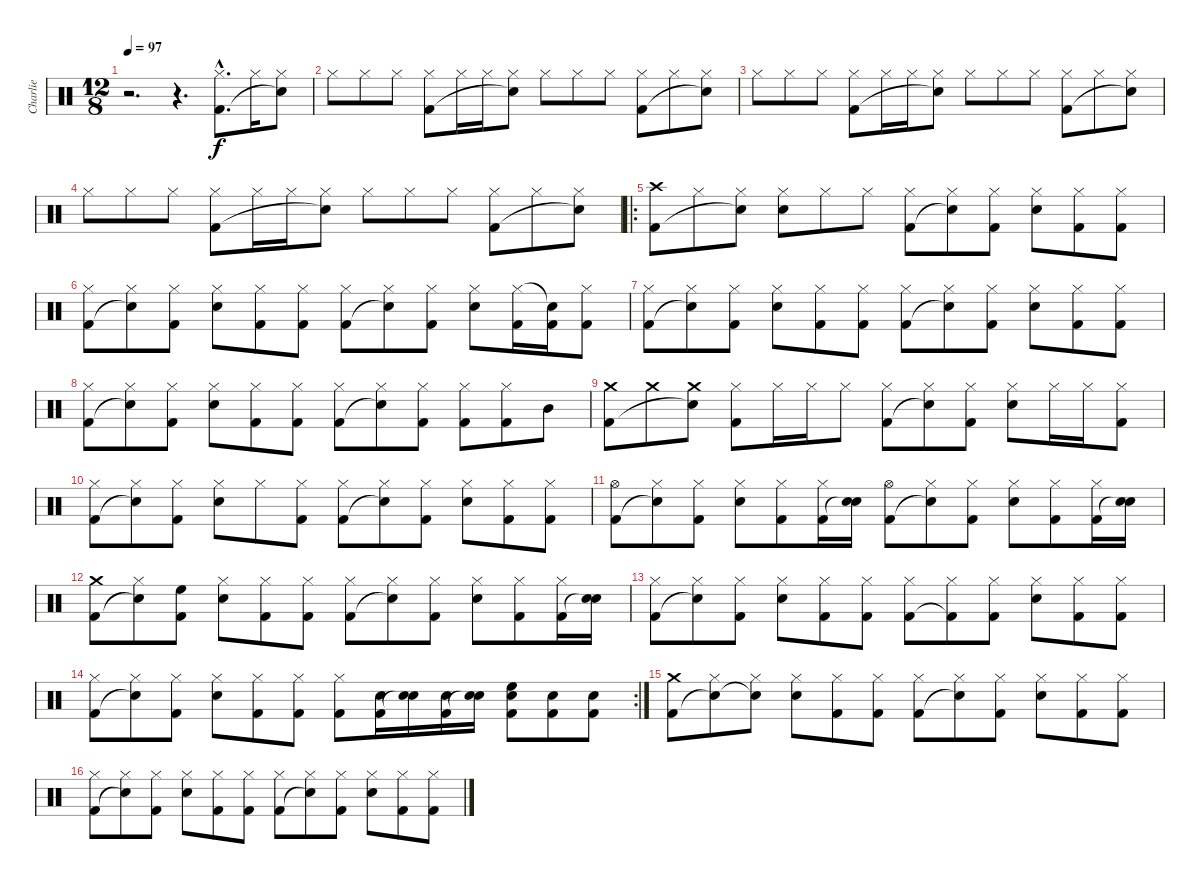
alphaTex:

\track ("Charlie" "Charlie") {instrument percussion}
\staff {score}
\articulation defaults
\ts (12 8)
\tempo 97
\clef neutral
\ks c
r.2{d dy f} r.4{d} ("Hi-Hat (closed)"{hac} "Kick (hit) 2"{hac}).8{d} "Hi-Hat (closed)".16 ("Hi-Hat (closed)" "Snare (hit)"{t}).8 |
"Hi-Hat (closed)".8 "Hi-Hat (closed)".8 "Hi-Hat (closed)".8 ("Hi-Hat (closed)" "Kick (hit) 2").8 "Hi-Hat (closed)".16 "Hi-Hat (closed)".16 ("Hi-Hat (closed)" "Snare (hit)"{t}).8 "Hi-Hat (closed)".8 "Hi-Hat (closed)".8 "Hi-Hat (closed)".8 ("Hi-Hat (closed)" "Kick (hit) 2").8 "Hi-Hat (closed)".8 ("Hi-Hat (closed)" "Snare (hit)"{t}).8 |
"Hi-Hat (closed)".8 "Hi-Hat (closed)".8 "Hi-Hat (closed)".8 ("Hi-Hat (closed)" "Kick (hit) 2").8 "Hi-Hat (closed)".16 "Hi-Hat (closed)".16 ("Hi-Hat (closed)" "Snare (hit)"{t}).8 "Hi-Hat (closed)".8 "Hi-Hat (closed)".8 "Hi-Hat (closed)".8 ("Hi-Hat (closed)" "Kick (hit) 2").8 "Hi-Hat (closed)".8 ("Hi-Hat (closed)" "Snare (hit)"{t}).8 |
"Hi-Hat (closed)".8 "Hi-Hat (closed)".8 "Hi-Hat (closed)".8 ("Hi-Hat (closed)" "Kick (hit) 2").8 "Hi-Hat (closed)".16 "Hi-Hat (closed)".16 ("Hi-Hat (closed)" "Snare (hit)"{t}).8 "Hi-Hat (closed)".8 "Hi-Hat (closed)".8 "Hi-Hat (closed)".8 ("Hi-Hat (closed)" "Kick (hit) 2").8 "Hi-Hat (closed)".8 ("Hi-Hat (closed)" "Snare (hit)"{t}).8 |
\ro
("Crash high (hit)" "Kick (hit) 2").8 "Hi-Hat (closed)".8 ("Hi-Hat (closed)" "Snare (hit)"{t}).8 ("Hi-Hat (closed)" "Snare (hit) 2").8 "Hi-Hat (closed)".8 "Hi-Hat (closed)".8 ("Hi-Hat (closed)" "Kick (hit) 2").8 ("Hi-Hat (closed)" "Snare (hit)"{t}).8 ("Hi-Hat (closed)" "Kick (hit) 2").8 ("Hi-Hat (closed)" "Snare (hit) 2").8 ("Hi-Hat (closed)" "Kick (hit) 2").8 ("Hi-Hat (closed)" "Kick (hit) 2").8 |
("Hi-Hat (closed)" "Kick (hit) 2").8 ("Hi-Hat (closed)" "Snare (hit)"{t}).8 ("Hi-Hat (closed)" "Kick (hit) 2").8 ("Hi-Hat (closed)" "Snare (hit) 2").8 ("Hi-Hat (closed)" "Kick (hit) 2").8 ("Hi-Hat (closed)" "Kick (hit) 2").8 ("Hi-Hat (closed)" "Kick (hit) 2").8 ("Hi-Hat (closed)" "Snare (hit)"{t}).8 ("Hi-Hat (closed)" "Kick (hit) 2").8 ("Hi-Hat (closed)" "Snare (hit) 2").8 ("Hi-Hat (closed)" "Kick (hit) 2").16 ("Snare (hit)"{t} "Kick (hit) 2").16 ("Hi-Hat (closed)" "Kick (hit) 2").8 |
("Hi-Hat (closed)" "Kick (hit) 2").8 ("Hi-Hat (closed)" "Snare (hit)"{t}).8 ("Hi-Hat (closed)" "Kick (hit) 2").8 ("Hi-Hat (closed)" "Snare (hit) 2").8 ("Hi-Hat (closed)" "Kick (hit) 2").8 ("Hi-Hat (closed)" "Kick (hit) 2").8 ("Hi-Hat (closed)" "Kick (hit) 2").8 ("Hi-Hat (closed)" "Snare (hit)"{t}).8 ("Hi-Hat (closed)" "Kick (hit) 2").8 ("Hi-Hat (closed)" "Snare (hit) 2").8 ("Hi-Hat (closed)" "Kick (hit) 2").8 ("Hi-Hat (closed)" "Kick (hit) 2").8 |
("Hi-Hat (closed)" "Kick (hit) 2").8 ("Hi-Hat (closed)" "Snare (hit)"{t}).8 ("Hi-Hat (closed)" "Kick (hit) 2").8 ("Hi-Hat (closed)" "Snare (hit) 2").8 ("Hi-Hat (closed)" "Kick (hit) 2").8 ("Hi-Hat (closed)" "Kick (hit) 2").8 ("Hi-Hat (closed)" "Kick (hit) 2").8 ("Hi-Hat (closed)" "Snare (hit)"{t}).8 ("Hi-Hat (closed)" "Kick (hit) 2").8 ("Hi-Hat (closed)" "Kick (hit) 2").8 ("Hi-Hat (closed)" "Kick (hit) 2").8 "Mid Tom (hit)".8 |
("Crash medium (hit)" "Kick (hit) 2").8 "Crash medium (hit)".8 ("Crash medium (hit)" "Snare (hit)"{t}).8 ("Hi-Hat (closed)" "Kick (hit) 2").8 "Hi-Hat (closed)".16 "Hi-Hat (closed)".16 "Hi-Hat (closed)".8 ("Hi-Hat (closed)" "Kick (hit) 2").8 ("Hi-Hat (closed)" "Snare (hit)"{t}).8 ("Hi-Hat (closed)" "Kick (hit) 2").8 ("Hi-Hat (closed)" "Snare (hit) 2").8 "Hi-Hat (closed)".16 "Hi-Hat (closed)".16 ("Hi-Hat (closed)" "Kick (hit) 2").8 |
("Hi-Hat (closed)" "Kick (hit) 2").8 ("Hi-Hat (closed)" "Snare (hit)"{t}).8 ("Hi-Hat (closed)" "Kick (hit) 2").8 ("Hi-Hat (closed)" "Snare (hit) 2").8 "Hi-Hat (closed)".8 ("Hi-Hat (closed)" "Kick (hit) 2").8 ("Hi-Hat (closed)" "Kick (hit) 2").8 ("Hi-Hat (closed)" "Snare (hit)"{t}).8 ("Hi-Hat (closed)" "Kick (hit) 2").8 ("Hi-Hat (closed)" "Snare (hit) 2").8 ("Hi-Hat (closed)" "Kick (hit) 2").8 ("Hi-Hat (closed)" "Kick (hit) 2").8 |
("Hi-Hat (open)" "Kick (hit) 2").8 ("Hi-Hat (closed)" "Snare (hit)"{t}).8 ("Hi-Hat (closed)" "Kick (hit) 2").8 ("Hi-Hat (closed)" "Snare (hit) 2").8 ("Hi-Hat (closed)" "Kick (hit) 2").8 ("Hi-Hat (closed)" "Kick (hit) 2").16 ("Snare (hit) 2" "Snare (hit)"{t}).16 ("Hi-Hat (open)" "Kick (hit) 2").8 ("Hi-Hat (closed)" "Snare (hit)"{t}).8 ("Hi-Hat (closed)" "Kick (hit) 2").8 ("Hi-Hat (closed)" "Snare (hit) 2").8 ("Hi-Hat (closed)" "Kick (hit) 2").8 ("Hi-Hat (closed)" "Kick (hit) 2").16 ("Snare (hit) 2" "Snare (hit)"{t}).16 |
("Crash medium (hit)" "Kick (hit) 2").8 ("Hi-Hat (closed)" "Snare (hit)"{t}).8 ("High Floor Tom (hit)" "Kick (hit) 2").8 ("Hi-Hat (closed)" "Snare (hit) 2").8 ("Hi-Hat (closed)" "Kick (hit) 2").8 ("Hi-Hat (closed)" "Kick (hit) 2").8 ("Hi-Hat (closed)" "Kick (hit) 2").8 ("Hi-Hat (closed)" "Snare (hit)"{t}).8 ("Hi-Hat (closed)" "Kick (hit) 2").8 ("Hi-Hat (closed)" "Snare (hit) 2").8 ("Hi-Hat (closed)" "Kick (hit) 2").8 ("Hi-Hat (closed)" "Kick (hit) 2").16 ("Snare (hit) 2" "Snare (hit)"{t}).16 |
("Hi-Hat (closed)" "Kick (hit) 2").8 ("Hi-Hat (closed)" "Snare (hit)"{t}).8 ("Hi-Hat (closed)" "Kick (hit) 2").8 ("Hi-Hat (closed)" "Snare (hit) 2").8 ("Hi-Hat (closed)" "Kick (hit) 2").8 ("Hi-Hat (closed)" "Kick (hit) 2").8 ("Hi-Hat (closed)" "Kick (hit) 2").8 ("Hi-Hat (closed)" "Kick (hit) 2"{t}).8 ("Hi-Hat (closed)" "Kick (hit) 2").8 ("Hi-Hat (closed)" "Snare (hit) 2").8 ("Hi-Hat (closed)" "Kick (hit) 2").8 ("Hi-Hat (closed)" "Kick (hit) 2").8 |
\rc 2
("Hi-Hat (closed)" "Kick (hit) 2").8 ("Hi-Hat (closed)" "Snare (hit)"{t}).8 ("Hi-Hat (closed)" "Kick (hit) 2").8 ("Hi-Hat (closed)" "Snare (hit) 2").8 ("Hi-Hat (closed)" "Kick (hit) 2").8 ("Hi-Hat (closed)" "Kick (hit) 2").8 ("Hi-Hat (closed)" "Kick (hit) 2").8 ("Snare (hit) 2" "Kick (hit) 2").16 ("Snare (hit) 2" "Snare (hit)"{t}).16 ("Snare (hit) 2" "Kick (hit) 2").16 ("Snare (hit) 2" "Snare (hit)"{t}).16 ("High Floor Tom (hit)" "Snare (hit) 2" "Kick (hit) 2").8 ("Snare (hit) 2" "Kick (hit) 2").8 ("Snare (hit) 2" "Kick (hit) 2").8 |
("Crash medium (hit)" "Kick (hit) 2").8 ("Hi-Hat (closed)" "Snare (hit)"{t}).8 ("Hi-Hat (closed)" "Snare (hit)"{t}).8 ("Hi-Hat (closed)" "Snare (hit) 2").8 ("Hi-Hat (closed)" "Kick (hit) 2").8 ("Hi-Hat (closed)" "Kick (hit) 2").8 ("Hi-Hat (closed)" "Kick (hit) 2").8 ("Hi-Hat (closed)" "Snare (hit)"{t}).8 ("Hi-Hat (closed)" "Kick (hit) 2").8 ("Hi-Hat (closed)" "Snare (hit) 2").8 ("Hi-Hat (closed)" "Kick (hit) 2").8 ("Hi-Hat (closed)" "Kick (hit) 2").8 |
("Hi-Hat (closed)" "Kick (hit) 2").8 ("Hi-Hat (closed)" "Snare (hit)"{t}).8 ("Hi-Hat (closed)" "Kick (hit) 2").8 ("Hi-Hat (closed)" "Snare (hit) 2").8 ("Hi-Hat (closed)" "Kick (hit) 2").8 ("Hi-Hat (closed)" "Kick (hit) 2").8 ("Hi-Hat (closed)" "Kick (hit) 2").8 ("Hi-Hat (closed)" "Snare (hit)"{t}).8 ("Hi-Hat (closed)" "Kick (hit) 2").8 ("Hi-Hat (closed)" "Snare (hit) 2").8 ("Hi-Hat (closed)" "Kick (hit) 2").8 ("Hi-Hat (closed)" "Kick (hit) 2").8
